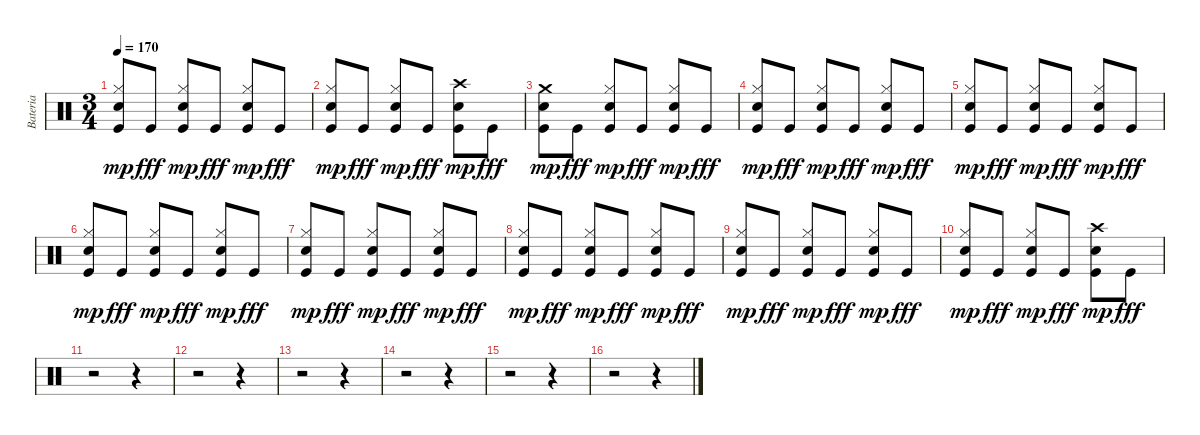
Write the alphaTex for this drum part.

\track ("Bateria" "Bateria") {instrument percussion}
\staff {score}
\articulation defaults
\ts (3 4)
\tempo 170
\clef neutral
\ks c
("Kick (hit)" "Hi-Hat (closed)" "Snare (hit) 2").8{dy mp} "Kick (hit)".8{dy fff} ("Kick (hit)" "Hi-Hat (closed)" "Snare (hit) 2").8{dy mp} "Kick (hit)".8{dy fff} ("Kick (hit)" "Hi-Hat (closed)" "Snare (hit) 2").8{dy mp} "Kick (hit)".8{dy fff} |
("Kick (hit)" "Hi-Hat (closed)" "Snare (hit) 2").8{dy mp} "Kick (hit)".8{dy fff} ("Kick (hit)" "Hi-Hat (closed)" "Snare (hit) 2").8{dy mp} "Kick (hit)".8{dy fff} ("Kick (hit)" "Crash high (hit)" "Snare (hit) 2").8{dy mp} "Kick (hit)".8{dy fff} |
("Kick (hit)" "Crash medium (hit)" "Snare (hit) 2").8{dy mp volume 12} "Kick (hit)".8{dy fff} ("Kick (hit)" "Snare (hit) 2" "Hi-Hat (closed)").8{dy mp} "Kick (hit)".8{dy fff} ("Kick (hit)" "Hi-Hat (closed)" "Snare (hit) 2").8{dy mp} "Kick (hit)".8{dy fff} |
("Kick (hit)" "Hi-Hat (closed)" "Snare (hit) 2").8{dy mp} "Kick (hit)".8{dy fff} ("Kick (hit)" "Hi-Hat (closed)" "Snare (hit) 2").8{dy mp} "Kick (hit)".8{dy fff} ("Kick (hit)" "Hi-Hat (closed)" "Snare (hit) 2").8{dy mp} "Kick (hit)".8{dy fff} |
("Kick (hit)" "Hi-Hat (closed)" "Snare (hit) 2").8{dy mp} "Kick (hit)".8{dy fff} ("Kick (hit)" "Hi-Hat (closed)" "Snare (hit) 2").8{dy mp} "Kick (hit)".8{dy fff} ("Kick (hit)" "Hi-Hat (closed)" "Snare (hit) 2").8{dy mp} "Kick (hit)".8{dy fff} |
("Kick (hit)" "Hi-Hat (closed)" "Snare (hit) 2").8{dy mp} "Kick (hit)".8{dy fff} ("Kick (hit)" "Hi-Hat (closed)" "Snare (hit) 2").8{dy mp} "Kick (hit)".8{dy fff} ("Kick (hit)" "Hi-Hat (closed)" "Snare (hit) 2").8{dy mp} "Kick (hit)".8{dy fff} |
("Kick (hit)" "Hi-Hat (closed)" "Snare (hit) 2").8{dy mp} "Kick (hit)".8{dy fff} ("Kick (hit)" "Hi-Hat (closed)" "Snare (hit) 2").8{dy mp} "Kick (hit)".8{dy fff} ("Kick (hit)" "Hi-Hat (closed)" "Snare (hit) 2").8{dy mp} "Kick (hit)".8{dy fff} |
("Kick (hit)" "Hi-Hat (closed)" "Snare (hit) 2").8{dy mp} "Kick (hit)".8{dy fff} ("Kick (hit)" "Hi-Hat (closed)" "Snare (hit) 2").8{dy mp} "Kick (hit)".8{dy fff} ("Kick (hit)" "Hi-Hat (closed)" "Snare (hit) 2").8{dy mp} "Kick (hit)".8{dy fff} |
("Kick (hit)" "Hi-Hat (closed)" "Snare (hit) 2").8{dy mp} "Kick (hit)".8{dy fff} ("Kick (hit)" "Hi-Hat (closed)" "Snare (hit) 2").8{dy mp} "Kick (hit)".8{dy fff} ("Kick (hit)" "Hi-Hat (closed)" "Snare (hit) 2").8{dy mp} "Kick (hit)".8{dy fff} |
("Kick (hit)" "Hi-Hat (closed)" "Snare (hit) 2").8{dy mp} "Kick (hit)".8{dy fff} ("Kick (hit)" "Hi-Hat (closed)" "Snare (hit) 2").8{dy mp} "Kick (hit)".8{dy fff} ("Kick (hit)" "Crash high (hit)" "Snare (hit) 2").8{dy mp} "Kick (hit)".8{dy fff} |
r.2 r.4 |
r.2 r.4 |
r.2 r.4 |
r.2 r.4 |
r.2 r.4 |
r.2 r.4
